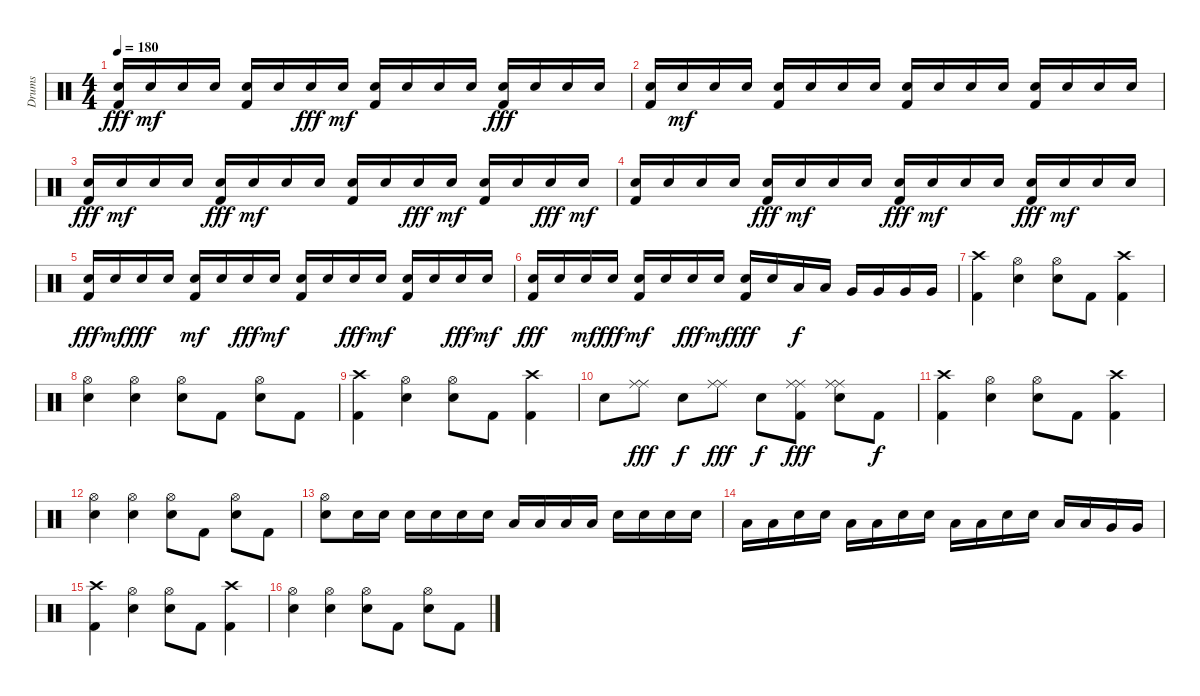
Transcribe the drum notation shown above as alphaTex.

\track ("Drums" "Drums") {instrument percussion}
\staff {score}
\articulation defaults
\ts (4 4)
\tempo 180
\clef neutral
\ks c
("Electric Snare (hit)" "Kick (hit) 2").16{dy fff} "Electric Snare (hit)".16{dy mf} "Electric Snare (hit)".16 "Electric Snare (hit)".16 ("Electric Snare (hit)" "Kick (hit) 2").16 "Electric Snare (hit)".16 "Electric Snare (hit)".16{dy fff} "Electric Snare (hit)".16{dy mf} ("Electric Snare (hit)" "Kick (hit) 2").16 "Electric Snare (hit)".16 "Electric Snare (hit)".16 "Electric Snare (hit)".16 ("Electric Snare (hit)" "Kick (hit) 2").16{dy fff} "Electric Snare (hit)".16 "Electric Snare (hit)".16 "Electric Snare (hit)".16 |
("Electric Snare (hit)" "Kick (hit) 2").16 "Electric Snare (hit)".16{dy mf} "Electric Snare (hit)".16 "Electric Snare (hit)".16 ("Electric Snare (hit)" "Kick (hit) 2").16 "Electric Snare (hit)".16 "Electric Snare (hit)".16 "Electric Snare (hit)".16 ("Electric Snare (hit)" "Kick (hit) 2").16 "Electric Snare (hit)".16 "Electric Snare (hit)".16 "Electric Snare (hit)".16 ("Electric Snare (hit)" "Kick (hit) 2").16 "Electric Snare (hit)".16 "Electric Snare (hit)".16 "Electric Snare (hit)".16 |
("Electric Snare (hit)" "Kick (hit) 2").16{dy fff} "Electric Snare (hit)".16{dy mf} "Electric Snare (hit)".16 "Electric Snare (hit)".16 ("Electric Snare (hit)" "Kick (hit) 2").16{dy fff} "Electric Snare (hit)".16{dy mf} "Electric Snare (hit)".16 "Electric Snare (hit)".16 ("Electric Snare (hit)" "Kick (hit) 2").16 "Electric Snare (hit)".16 "Electric Snare (hit)".16{dy fff} "Electric Snare (hit)".16{dy mf} ("Electric Snare (hit)" "Kick (hit) 2").16 "Electric Snare (hit)".16 "Electric Snare (hit)".16{dy fff} "Electric Snare (hit)".16{dy mf} |
("Electric Snare (hit)" "Kick (hit) 2").16 "Electric Snare (hit)".16 "Electric Snare (hit)".16 "Electric Snare (hit)".16 ("Electric Snare (hit)" "Kick (hit) 2").16{dy fff} "Electric Snare (hit)".16{dy mf} "Electric Snare (hit)".16 "Electric Snare (hit)".16 ("Electric Snare (hit)" "Kick (hit) 2").16{dy fff} "Electric Snare (hit)".16{dy mf} "Electric Snare (hit)".16 "Electric Snare (hit)".16 ("Electric Snare (hit)" "Kick (hit) 2").16{dy fff} "Electric Snare (hit)".16{dy mf} "Electric Snare (hit)".16 "Electric Snare (hit)".16 |
("Electric Snare (hit)" "Kick (hit) 2").16{dy fff} "Electric Snare (hit)".16{dy mf} "Electric Snare (hit)".16{dy fff} "Electric Snare (hit)".16 ("Electric Snare (hit)" "Kick (hit) 2").16{dy mf} "Electric Snare (hit)".16 "Electric Snare (hit)".16{dy fff} "Electric Snare (hit)".16{dy mf} ("Electric Snare (hit)" "Kick (hit) 2").16 "Electric Snare (hit)".16 "Electric Snare (hit)".16{dy fff} "Electric Snare (hit)".16{dy mf} ("Electric Snare (hit)" "Kick (hit) 2").16 "Electric Snare (hit)".16 "Electric Snare (hit)".16{dy fff} "Electric Snare (hit)".16{dy mf} |
("Electric Snare (hit)" "Kick (hit) 2").16{dy fff} "Electric Snare (hit)".16 "Electric Snare (hit)".16{dy mf} "Electric Snare (hit)".16{dy fff} ("Electric Snare (hit)" "Kick (hit) 2").16{dy mf} "Electric Snare (hit)".16 "Electric Snare (hit)".16{dy fff} "Electric Snare (hit)".16{dy mf} ("Electric Snare (hit)" "Kick (hit) 2").16{dy fff} "Electric Snare (hit)".16 "Low Tom (hit)".16{dy f} "Low Tom (hit)".16 "Very Low Tom (hit)".16 "Very Low Tom (hit)".16 "Very Low Tom (hit)".16 "Very Low Tom (hit)".16 |
("Crash high (hit)" "Kick (hit) 2").4 ("Hi-Hat (open)" "Electric Snare (hit)").4 ("Hi-Hat (open)" "Electric Snare (hit)").8 "Kick (hit) 2".8 ("Crash high (hit)" "Kick (hit) 2").4 |
("Hi-Hat (open)" "Electric Snare (hit)").4 ("Hi-Hat (open)" "Electric Snare (hit)").4 ("Hi-Hat (open)" "Electric Snare (hit)").8 "Kick (hit) 2".8 ("Hi-Hat (open)" "Electric Snare (hit)").8 "Kick (hit) 2".8 |
("Crash high (hit)" "Kick (hit) 2").4 ("Hi-Hat (open)" "Electric Snare (hit)").4 ("Hi-Hat (open)" "Electric Snare (hit)").8 "Kick (hit) 2".8 ("Crash high (hit)" "Kick (hit) 2").4 |
"Electric Snare (hit)".8 ("Ride (middle)" "Ride (middle)").8{dy fff} "Electric Snare (hit)".8{dy f} ("Ride (middle)" "Ride (middle)").8{dy fff} "Electric Snare (hit)".8{dy f} ("Ride (middle)" "Ride (middle)" "Kick (hit) 2").8{dy fff} ("Ride (middle)" "Ride (middle)" "Electric Snare (hit)").8 "Kick (hit) 2".8{dy f} |
("Crash high (hit)" "Kick (hit) 2").4 ("Hi-Hat (open)" "Electric Snare (hit)").4 ("Hi-Hat (open)" "Electric Snare (hit)").8 "Kick (hit) 2".8 ("Crash high (hit)" "Kick (hit) 2").4 |
("Hi-Hat (open)" "Electric Snare (hit)").4 ("Hi-Hat (open)" "Electric Snare (hit)").4 ("Hi-Hat (open)" "Electric Snare (hit)").8 "Kick (hit) 2".8 ("Hi-Hat (open)" "Electric Snare (hit)").8 "Kick (hit) 2".8 |
("Hi-Hat (open)" "Electric Snare (hit)").8 "Electric Snare (hit)".16 "Electric Snare (hit)".16 "Electric Snare (hit)".16 "Electric Snare (hit)".16 "Electric Snare (hit)".16 "Electric Snare (hit)".16 "Low Tom (hit)".16 "Low Tom (hit)".16 "Low Tom (hit)".16 "Low Tom (hit)".16 "Electric Snare (hit)".16 "Electric Snare (hit)".16 "Electric Snare (hit)".16 "Electric Snare (hit)".16 |
"Low Tom (hit)".16 "Low Tom (hit)".16 "Electric Snare (hit)".16 "Electric Snare (hit)".16 "Low Tom (hit)".16 "Low Tom (hit)".16 "Electric Snare (hit)".16 "Electric Snare (hit)".16 "Low Tom (hit)".16 "Low Tom (hit)".16 "Electric Snare (hit)".16 "Electric Snare (hit)".16 "Low Tom (hit)".16 "Low Tom (hit)".16 "Very Low Tom (hit)".16 "Very Low Tom (hit)".16 |
("Crash high (hit)" "Kick (hit) 2").4 ("Hi-Hat (open)" "Electric Snare (hit)").4 ("Hi-Hat (open)" "Electric Snare (hit)").8 "Kick (hit) 2".8 ("Crash high (hit)" "Kick (hit) 2").4 |
("Hi-Hat (open)" "Electric Snare (hit)").4 ("Hi-Hat (open)" "Electric Snare (hit)").4 ("Hi-Hat (open)" "Electric Snare (hit)").8 "Kick (hit) 2".8 ("Hi-Hat (open)" "Electric Snare (hit)").8 "Kick (hit) 2".8
